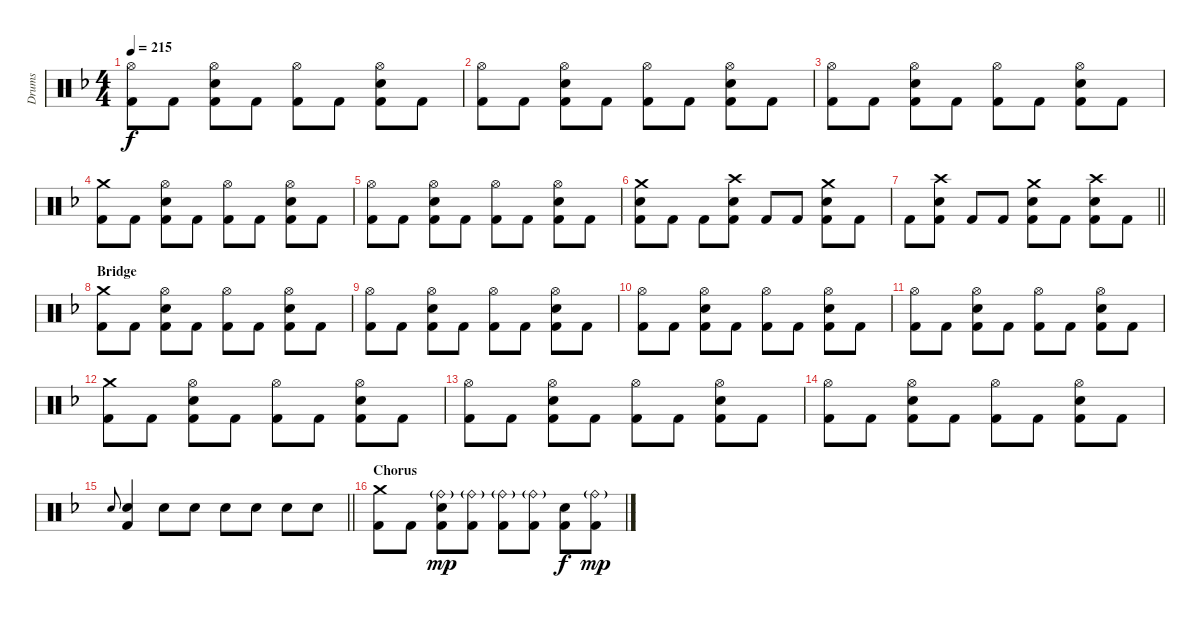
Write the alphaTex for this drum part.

\track ("Drums" "Drums") {instrument percussion}
\staff {score}
\articulation defaults
\ts (4 4)
\tempo 215
\clef neutral
\ks f
("Hi-Hat (open)" "Kick (hit) 2").8{dy f} "Kick (hit) 2".8 ("Hi-Hat (open)" "Snare (hit) 2" "Kick (hit) 2").8 "Kick (hit) 2".8 ("Hi-Hat (open)" "Kick (hit) 2").8 "Kick (hit) 2".8 ("Hi-Hat (open)" "Snare (hit) 2" "Kick (hit) 2").8 "Kick (hit) 2".8 |
("Hi-Hat (open)" "Kick (hit) 2").8 "Kick (hit) 2".8 ("Hi-Hat (open)" "Snare (hit) 2" "Kick (hit) 2").8 "Kick (hit) 2".8 ("Hi-Hat (open)" "Kick (hit) 2").8 "Kick (hit) 2".8 ("Hi-Hat (open)" "Snare (hit) 2" "Kick (hit) 2").8 "Kick (hit) 2".8 |
("Hi-Hat (open)" "Kick (hit) 2").8 "Kick (hit) 2".8 ("Hi-Hat (open)" "Snare (hit) 2" "Kick (hit) 2").8 "Kick (hit) 2".8 ("Hi-Hat (open)" "Kick (hit) 2").8 "Kick (hit) 2".8 ("Hi-Hat (open)" "Snare (hit) 2" "Kick (hit) 2").8 "Kick (hit) 2".8 |
("Crash medium (hit)" "Kick (hit) 2").8 "Kick (hit) 2".8 ("Hi-Hat (open)" "Snare (hit) 2" "Kick (hit) 2").8 "Kick (hit) 2".8 ("Hi-Hat (open)" "Kick (hit) 2").8 "Kick (hit) 2".8 ("Hi-Hat (open)" "Snare (hit) 2" "Kick (hit) 2").8 "Kick (hit) 2".8 |
("Hi-Hat (open)" "Kick (hit) 2").8 "Kick (hit) 2".8 ("Hi-Hat (open)" "Snare (hit) 2" "Kick (hit) 2").8 "Kick (hit) 2".8 ("Hi-Hat (open)" "Kick (hit) 2").8 "Kick (hit) 2".8 ("Hi-Hat (open)" "Snare (hit) 2" "Kick (hit) 2").8 "Kick (hit) 2".8 |
("Crash medium (hit)" "Snare (hit) 2" "Kick (hit) 2").8 "Kick (hit) 2".8 "Kick (hit) 2".8 ("Crash high (hit)" "Snare (hit) 2" "Kick (hit) 2").8 "Kick (hit) 2".8 "Kick (hit) 2".8 ("Crash medium (hit)" "Snare (hit) 2" "Kick (hit) 2").8 "Kick (hit) 2".8 |
\barLineRight lightlight "Kick (hit) 2".8
("Crash high (hit)" "Snare (hit) 2" "Kick (hit) 2").8 "Kick (hit) 2".8 "Kick (hit) 2".8 ("Crash medium (hit)" "Snare (hit) 2" "Kick (hit) 2").8 "Kick (hit) 2".8 ("Crash high (hit)" "Snare (hit) 2" "Kick (hit) 2").8 "Kick (hit) 2".8 |
\section ("" "Bridge")
("Crash medium (hit)" "Kick (hit) 2").8 "Kick (hit) 2".8 ("Hi-Hat (open)" "Snare (hit) 2" "Kick (hit) 2").8 "Kick (hit) 2".8 ("Hi-Hat (open)" "Kick (hit) 2").8 "Kick (hit) 2".8 ("Hi-Hat (open)" "Snare (hit) 2" "Kick (hit) 2").8 "Kick (hit) 2".8 |
("Hi-Hat (open)" "Kick (hit) 2").8 "Kick (hit) 2".8 ("Hi-Hat (open)" "Snare (hit) 2" "Kick (hit) 2").8 "Kick (hit) 2".8 ("Hi-Hat (open)" "Kick (hit) 2").8 "Kick (hit) 2".8 ("Hi-Hat (open)" "Snare (hit) 2" "Kick (hit) 2").8 "Kick (hit) 2".8 |
("Hi-Hat (open)" "Kick (hit) 2").8 "Kick (hit) 2".8 ("Hi-Hat (open)" "Snare (hit) 2" "Kick (hit) 2").8 "Kick (hit) 2".8 ("Hi-Hat (open)" "Kick (hit) 2").8 "Kick (hit) 2".8 ("Hi-Hat (open)" "Snare (hit) 2" "Kick (hit) 2").8 "Kick (hit) 2".8 |
("Hi-Hat (open)" "Kick (hit) 2").8 "Kick (hit) 2".8 ("Hi-Hat (open)" "Snare (hit) 2" "Kick (hit) 2").8 "Kick (hit) 2".8 ("Hi-Hat (open)" "Kick (hit) 2").8 "Kick (hit) 2".8 ("Hi-Hat (open)" "Snare (hit) 2" "Kick (hit) 2").8 "Kick (hit) 2".8 |
("Crash medium (hit)" "Kick (hit) 2").8 "Kick (hit) 2".8 ("Hi-Hat (open)" "Snare (hit) 2" "Kick (hit) 2").8 "Kick (hit) 2".8 ("Hi-Hat (open)" "Kick (hit) 2").8 "Kick (hit) 2".8 ("Hi-Hat (open)" "Snare (hit) 2" "Kick (hit) 2").8 "Kick (hit) 2".8 |
("Hi-Hat (open)" "Kick (hit) 2").8 "Kick (hit) 2".8 ("Hi-Hat (open)" "Snare (hit) 2" "Kick (hit) 2").8 "Kick (hit) 2".8 ("Hi-Hat (open)" "Kick (hit) 2").8 "Kick (hit) 2".8 ("Hi-Hat (open)" "Snare (hit) 2" "Kick (hit) 2").8 "Kick (hit) 2".8 |
("Hi-Hat (open)" "Kick (hit) 2").8 "Kick (hit) 2".8 ("Hi-Hat (open)" "Snare (hit) 2" "Kick (hit) 2").8 "Kick (hit) 2".8 ("Hi-Hat (open)" "Kick (hit) 2").8 "Kick (hit) 2".8 ("Hi-Hat (open)" "Snare (hit) 2" "Kick (hit) 2").8 "Kick (hit) 2".8 |
\barLineRight lightlight "Snare (hit) 2".8{gr onbeat}
("Snare (hit) 2" "Kick (hit) 2").4 "Snare (hit) 2".8 "Snare (hit) 2".8 "Snare (hit) 2".8 "Snare (hit) 2".8 "Snare (hit) 2".8 "Snare (hit) 2".8 |
\section ("" "Chorus")
("Crash medium (hit)" "Kick (hit) 2").8 "Kick (hit) 2".8 ("Ride (bell)"{g} "Snare (hit) 2" "Kick (hit) 2").8{dy mp} ("Ride (bell)"{g} "Kick (hit) 2").8 ("Ride (bell)"{g} "Kick (hit) 2").8 ("Ride (bell)"{g} "Kick (hit) 2").8 ("Snare (hit) 2" "Kick (hit) 2").8{dy f} ("Ride (bell)"{g} "Kick (hit) 2").8{dy mp}
